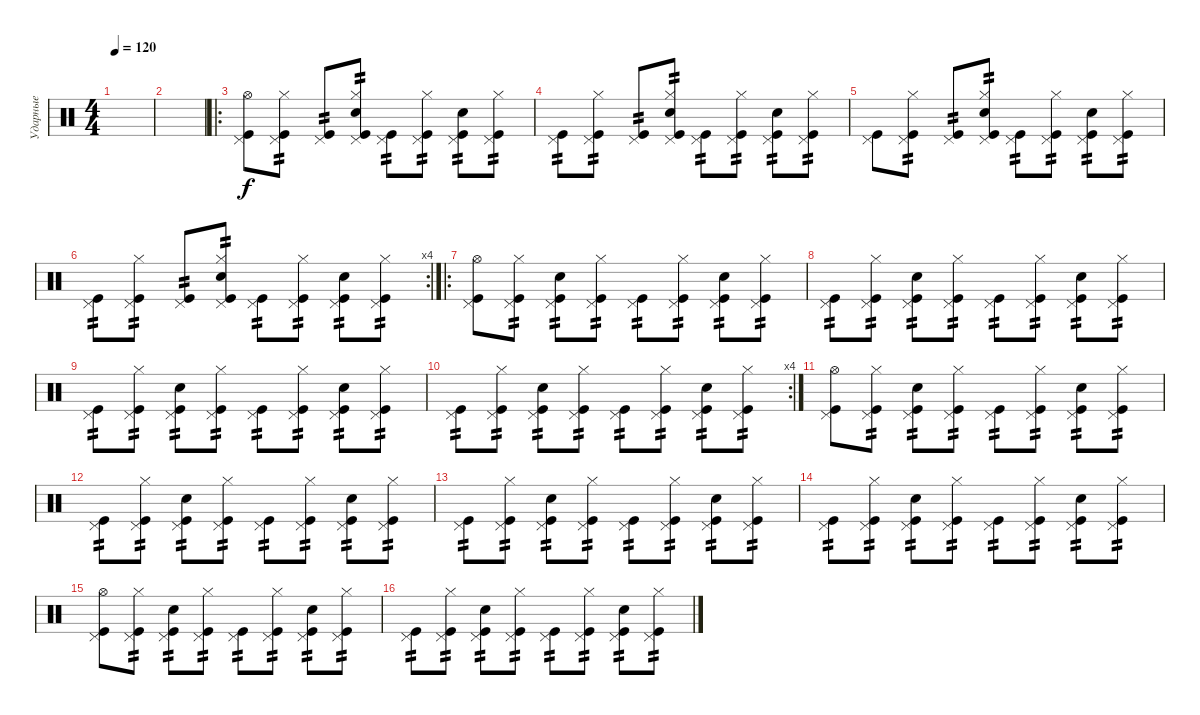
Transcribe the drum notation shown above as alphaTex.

\track ("Ударные" "Ударные") {instrument percussion}
\staff {score}
\articulation defaults
\ts (4 4)
\tempo 120
\clef neutral
\ks c
|
|
\ro
("Pedal Hi-Hat (hit)" "Hi-Hat (open)" "Kick (hit)").8{dy f} ("Pedal Hi-Hat (hit)" "Hi-Hat (closed)" "Kick (hit)").8{tp 2} ("Pedal Hi-Hat (hit)" "Kick (hit)").8{tp 2} ("Pedal Hi-Hat (hit)" "Hi-Hat (closed)" "Electric Snare (hit)" "Kick (hit)").8{tp 2} ("Pedal Hi-Hat (hit)" "Kick (hit)").8{tp 2} ("Pedal Hi-Hat (hit)" "Hi-Hat (closed)" "Kick (hit)").8{tp 2} ("Pedal Hi-Hat (hit)" "Electric Snare (hit)" "Kick (hit)").8{tp 2} ("Pedal Hi-Hat (hit)" "Hi-Hat (closed)" "Kick (hit)").8{tp 2} |
("Pedal Hi-Hat (hit)" "Kick (hit)").8{tp 2} ("Pedal Hi-Hat (hit)" "Hi-Hat (closed)" "Kick (hit)").8{tp 2} ("Pedal Hi-Hat (hit)" "Kick (hit)").8{tp 2} ("Pedal Hi-Hat (hit)" "Hi-Hat (closed)" "Electric Snare (hit)" "Kick (hit)").8{tp 2} ("Pedal Hi-Hat (hit)" "Kick (hit)").8{tp 2} ("Pedal Hi-Hat (hit)" "Hi-Hat (closed)" "Kick (hit)").8{tp 2} ("Pedal Hi-Hat (hit)" "Electric Snare (hit)" "Kick (hit)").8{tp 2} ("Pedal Hi-Hat (hit)" "Hi-Hat (closed)" "Kick (hit)").8{tp 2} |
("Pedal Hi-Hat (hit)" "Kick (hit)").8 ("Pedal Hi-Hat (hit)" "Hi-Hat (closed)" "Kick (hit)").8{tp 2} ("Pedal Hi-Hat (hit)" "Kick (hit)").8{tp 2} ("Pedal Hi-Hat (hit)" "Hi-Hat (closed)" "Electric Snare (hit)" "Kick (hit)").8{tp 2} ("Pedal Hi-Hat (hit)" "Kick (hit)").8{tp 2} ("Pedal Hi-Hat (hit)" "Hi-Hat (closed)" "Kick (hit)").8{tp 2} ("Pedal Hi-Hat (hit)" "Electric Snare (hit)" "Kick (hit)").8{tp 2} ("Pedal Hi-Hat (hit)" "Hi-Hat (closed)" "Kick (hit)").8{tp 2} |
\rc 4
("Pedal Hi-Hat (hit)" "Kick (hit)").8{tp 2} ("Pedal Hi-Hat (hit)" "Hi-Hat (closed)" "Kick (hit)").8{tp 2} ("Pedal Hi-Hat (hit)" "Kick (hit)").8{tp 2} ("Pedal Hi-Hat (hit)" "Hi-Hat (closed)" "Electric Snare (hit)" "Kick (hit)").8{tp 2} ("Pedal Hi-Hat (hit)" "Kick (hit)").8{tp 2} ("Pedal Hi-Hat (hit)" "Hi-Hat (closed)" "Kick (hit)").8{tp 2} ("Pedal Hi-Hat (hit)" "Electric Snare (hit)" "Kick (hit)").8{tp 2} ("Pedal Hi-Hat (hit)" "Hi-Hat (closed)" "Kick (hit)").8{tp 2} |
\ro
("Pedal Hi-Hat (hit)" "Hi-Hat (open)" "Kick (hit)").8 ("Pedal Hi-Hat (hit)" "Hi-Hat (closed)" "Kick (hit)").8{tp 2} ("Pedal Hi-Hat (hit)" "Electric Snare (hit)" "Kick (hit)").8{tp 2} ("Pedal Hi-Hat (hit)" "Hi-Hat (closed)" "Kick (hit)").8{tp 2} ("Pedal Hi-Hat (hit)" "Kick (hit)").8{tp 2} ("Pedal Hi-Hat (hit)" "Hi-Hat (closed)" "Kick (hit)").8{tp 2} ("Pedal Hi-Hat (hit)" "Electric Snare (hit)" "Kick (hit)").8{tp 2} ("Pedal Hi-Hat (hit)" "Hi-Hat (closed)" "Kick (hit)").8{tp 2} |
("Pedal Hi-Hat (hit)" "Kick (hit)").8{tp 2} ("Pedal Hi-Hat (hit)" "Hi-Hat (closed)" "Kick (hit)").8{tp 2} ("Pedal Hi-Hat (hit)" "Electric Snare (hit)" "Kick (hit)").8{tp 2} ("Pedal Hi-Hat (hit)" "Hi-Hat (closed)" "Kick (hit)").8{tp 2} ("Pedal Hi-Hat (hit)" "Kick (hit)").8{tp 2} ("Pedal Hi-Hat (hit)" "Hi-Hat (closed)" "Kick (hit)").8{tp 2} ("Pedal Hi-Hat (hit)" "Electric Snare (hit)" "Kick (hit)").8{tp 2} ("Pedal Hi-Hat (hit)" "Hi-Hat (closed)" "Kick (hit)").8{tp 2} |
("Pedal Hi-Hat (hit)" "Kick (hit)").8{tp 2} ("Pedal Hi-Hat (hit)" "Hi-Hat (closed)" "Kick (hit)").8{tp 2} ("Pedal Hi-Hat (hit)" "Electric Snare (hit)" "Kick (hit)").8{tp 2} ("Pedal Hi-Hat (hit)" "Hi-Hat (closed)" "Kick (hit)").8{tp 2} ("Pedal Hi-Hat (hit)" "Kick (hit)").8{tp 2} ("Pedal Hi-Hat (hit)" "Hi-Hat (closed)" "Kick (hit)").8{tp 2} ("Pedal Hi-Hat (hit)" "Electric Snare (hit)" "Kick (hit)").8{tp 2} ("Pedal Hi-Hat (hit)" "Hi-Hat (closed)" "Kick (hit)").8{tp 2} |
\rc 4
("Pedal Hi-Hat (hit)" "Kick (hit)").8{tp 2} ("Pedal Hi-Hat (hit)" "Hi-Hat (closed)" "Kick (hit)").8{tp 2} ("Pedal Hi-Hat (hit)" "Electric Snare (hit)" "Kick (hit)").8{tp 2} ("Pedal Hi-Hat (hit)" "Hi-Hat (closed)" "Kick (hit)").8{tp 2} ("Pedal Hi-Hat (hit)" "Kick (hit)").8{tp 2} ("Pedal Hi-Hat (hit)" "Hi-Hat (closed)" "Kick (hit)").8{tp 2} ("Pedal Hi-Hat (hit)" "Electric Snare (hit)" "Kick (hit)").8{tp 2} ("Pedal Hi-Hat (hit)" "Hi-Hat (closed)" "Kick (hit)").8{tp 2} |
("Pedal Hi-Hat (hit)" "Hi-Hat (open)" "Kick (hit)").8{volume 8} ("Pedal Hi-Hat (hit)" "Hi-Hat (closed)" "Kick (hit)").8{tp 2} ("Pedal Hi-Hat (hit)" "Electric Snare (hit)" "Kick (hit)").8{tp 2} ("Pedal Hi-Hat (hit)" "Hi-Hat (closed)" "Kick (hit)").8{tp 2} ("Pedal Hi-Hat (hit)" "Kick (hit)").8{tp 2} ("Pedal Hi-Hat (hit)" "Hi-Hat (closed)" "Kick (hit)").8{tp 2} ("Pedal Hi-Hat (hit)" "Electric Snare (hit)" "Kick (hit)").8{tp 2} ("Pedal Hi-Hat (hit)" "Hi-Hat (closed)" "Kick (hit)").8{tp 2} |
("Pedal Hi-Hat (hit)" "Kick (hit)").8{tp 2 volume 7} ("Pedal Hi-Hat (hit)" "Hi-Hat (closed)" "Kick (hit)").8{tp 2} ("Pedal Hi-Hat (hit)" "Electric Snare (hit)" "Kick (hit)").8{tp 2} ("Pedal Hi-Hat (hit)" "Hi-Hat (closed)" "Kick (hit)").8{tp 2} ("Pedal Hi-Hat (hit)" "Kick (hit)").8{tp 2} ("Pedal Hi-Hat (hit)" "Hi-Hat (closed)" "Kick (hit)").8{tp 2} ("Pedal Hi-Hat (hit)" "Electric Snare (hit)" "Kick (hit)").8{tp 2} ("Pedal Hi-Hat (hit)" "Hi-Hat (closed)" "Kick (hit)").8{tp 2} |
("Pedal Hi-Hat (hit)" "Kick (hit)").8{tp 2 volume 5} ("Pedal Hi-Hat (hit)" "Hi-Hat (closed)" "Kick (hit)").8{tp 2} ("Pedal Hi-Hat (hit)" "Electric Snare (hit)" "Kick (hit)").8{tp 2} ("Pedal Hi-Hat (hit)" "Hi-Hat (closed)" "Kick (hit)").8{tp 2} ("Pedal Hi-Hat (hit)" "Kick (hit)").8{tp 2} ("Pedal Hi-Hat (hit)" "Hi-Hat (closed)" "Kick (hit)").8{tp 2} ("Pedal Hi-Hat (hit)" "Electric Snare (hit)" "Kick (hit)").8{tp 2} ("Pedal Hi-Hat (hit)" "Hi-Hat (closed)" "Kick (hit)").8{tp 2} |
("Pedal Hi-Hat (hit)" "Kick (hit)").8{tp 2 volume 3} ("Pedal Hi-Hat (hit)" "Hi-Hat (closed)" "Kick (hit)").8{tp 2} ("Pedal Hi-Hat (hit)" "Electric Snare (hit)" "Kick (hit)").8{tp 2} ("Pedal Hi-Hat (hit)" "Hi-Hat (closed)" "Kick (hit)").8{tp 2} ("Pedal Hi-Hat (hit)" "Kick (hit)").8{tp 2} ("Pedal Hi-Hat (hit)" "Hi-Hat (closed)" "Kick (hit)").8{tp 2} ("Pedal Hi-Hat (hit)" "Electric Snare (hit)" "Kick (hit)").8{tp 2} ("Pedal Hi-Hat (hit)" "Hi-Hat (closed)" "Kick (hit)").8{tp 2} |
("Pedal Hi-Hat (hit)" "Hi-Hat (open)" "Kick (hit)").8{volume 2} ("Pedal Hi-Hat (hit)" "Hi-Hat (closed)" "Kick (hit)").8{tp 2} ("Pedal Hi-Hat (hit)" "Electric Snare (hit)" "Kick (hit)").8{tp 2} ("Pedal Hi-Hat (hit)" "Hi-Hat (closed)" "Kick (hit)").8{tp 2} ("Pedal Hi-Hat (hit)" "Kick (hit)").8{tp 2} ("Pedal Hi-Hat (hit)" "Hi-Hat (closed)" "Kick (hit)").8{tp 2} ("Pedal Hi-Hat (hit)" "Electric Snare (hit)" "Kick (hit)").8{tp 2} ("Pedal Hi-Hat (hit)" "Hi-Hat (closed)" "Kick (hit)").8{tp 2} |
("Pedal Hi-Hat (hit)" "Kick (hit)").8{tp 2} ("Pedal Hi-Hat (hit)" "Hi-Hat (closed)" "Kick (hit)").8{tp 2} ("Pedal Hi-Hat (hit)" "Electric Snare (hit)" "Kick (hit)").8{tp 2} ("Pedal Hi-Hat (hit)" "Hi-Hat (closed)" "Kick (hit)").8{tp 2} ("Pedal Hi-Hat (hit)" "Kick (hit)").8{tp 2} ("Pedal Hi-Hat (hit)" "Hi-Hat (closed)" "Kick (hit)").8{tp 2} ("Pedal Hi-Hat (hit)" "Electric Snare (hit)" "Kick (hit)").8{tp 2} ("Pedal Hi-Hat (hit)" "Hi-Hat (closed)" "Kick (hit)").8{tp 2}
